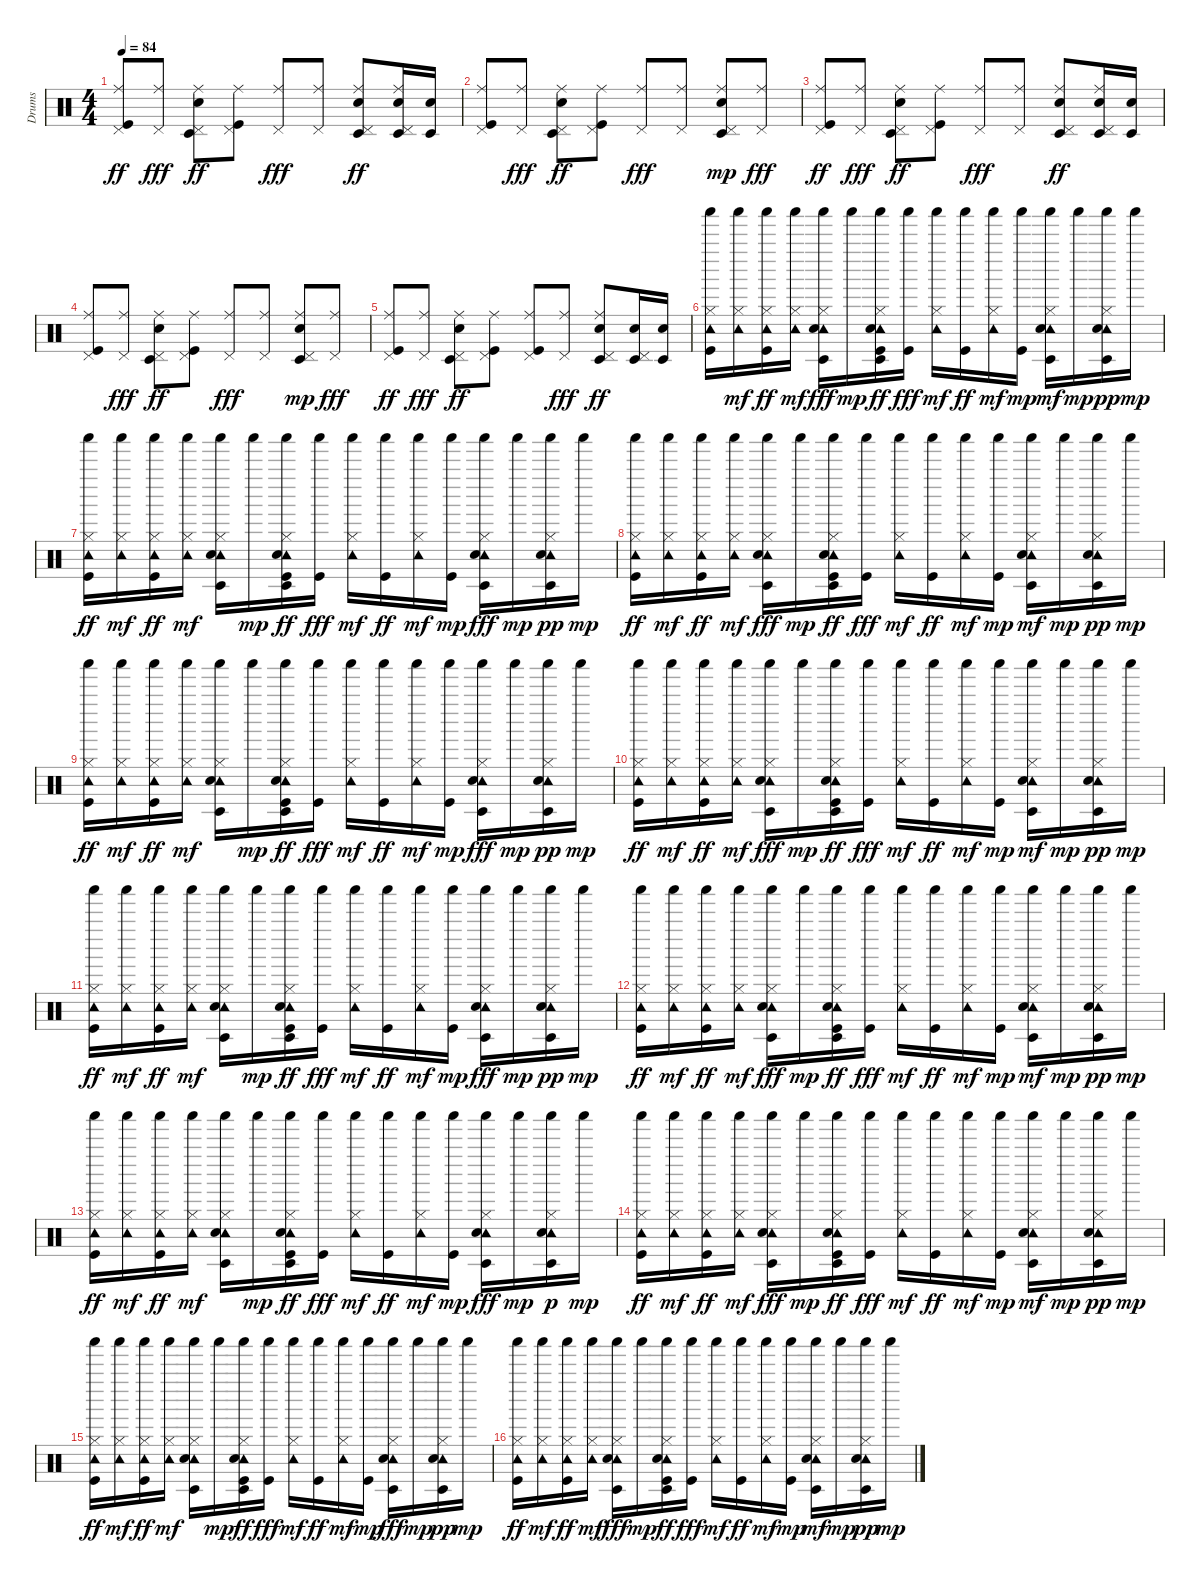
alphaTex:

\track ("Drums" "Drums") {instrument percussion}
\staff {score}
\articulation defaults
\ts (4 4)
\tempo 84
\clef neutral
\ks c
("Ride (middle)" "Pedal Hi-Hat (hit)" "Kick (hit)").8{dy ff} ("Ride (middle)" "Pedal Hi-Hat (hit)").8{dy fff} ("Ride (middle)" "Pedal Hi-Hat (hit)" "Timbale low (hit)" "Snare (hit) 2").8{dy ff} ("Ride (middle)" "Pedal Hi-Hat (hit)" "Kick (hit)").8 ("Ride (middle)" "Pedal Hi-Hat (hit)").8{dy fff} ("Ride (middle)" "Pedal Hi-Hat (hit)").8 ("Ride (middle)" "Pedal Hi-Hat (hit)" "Timbale low (hit)" "Snare (hit) 2").8{dy ff} ("Ride (middle)" "Pedal Hi-Hat (hit)" "Timbale low (hit)" "Snare (hit) 2").16 ("Timbale low (hit)" "Snare (hit) 2").16 |
("Ride (middle)" "Pedal Hi-Hat (hit)" "Kick (hit)").8 ("Ride (middle)" "Pedal Hi-Hat (hit)").8{dy fff} ("Ride (middle)" "Pedal Hi-Hat (hit)" "Timbale low (hit)" "Snare (hit) 2").8{dy ff} ("Ride (middle)" "Pedal Hi-Hat (hit)" "Kick (hit)").8 ("Ride (middle)" "Pedal Hi-Hat (hit)").8{dy fff} ("Ride (middle)" "Pedal Hi-Hat (hit)").8 ("Ride (middle)" "Pedal Hi-Hat (hit)" "Timbale low (hit)" "Snare (hit) 2").8{dy mp} ("Ride (middle)" "Pedal Hi-Hat (hit)").8{dy fff} |
("Ride (middle)" "Pedal Hi-Hat (hit)" "Kick (hit)").8{dy ff} ("Ride (middle)" "Pedal Hi-Hat (hit)").8{dy fff} ("Ride (middle)" "Pedal Hi-Hat (hit)" "Timbale low (hit)" "Snare (hit) 2").8{dy ff} ("Ride (middle)" "Pedal Hi-Hat (hit)" "Kick (hit)").8 ("Ride (middle)" "Pedal Hi-Hat (hit)").8{dy fff} ("Ride (middle)" "Pedal Hi-Hat (hit)").8 ("Ride (middle)" "Pedal Hi-Hat (hit)" "Timbale low (hit)" "Snare (hit) 2").8{dy ff} ("Ride (middle)" "Pedal Hi-Hat (hit)" "Timbale low (hit)" "Snare (hit) 2").16 ("Timbale low (hit)" "Snare (hit) 2").16 |
("Ride (middle)" "Pedal Hi-Hat (hit)" "Kick (hit)").8 ("Ride (middle)" "Pedal Hi-Hat (hit)").8{dy fff} ("Ride (middle)" "Pedal Hi-Hat (hit)" "Timbale low (hit)" "Snare (hit) 2").8{dy ff} ("Ride (middle)" "Pedal Hi-Hat (hit)" "Kick (hit)").8 ("Ride (middle)" "Pedal Hi-Hat (hit)").8{dy fff} ("Ride (middle)" "Pedal Hi-Hat (hit)").8 ("Ride (middle)" "Pedal Hi-Hat (hit)" "Timbale low (hit)" "Snare (hit) 2").8{dy mp} ("Ride (middle)" "Pedal Hi-Hat (hit)").8{dy fff} |
("Ride (middle)" "Pedal Hi-Hat (hit)" "Kick (hit)").8{dy ff} ("Ride (middle)" "Pedal Hi-Hat (hit)").8{dy fff} ("Ride (middle)" "Pedal Hi-Hat (hit)" "Timbale low (hit)" "Snare (hit) 2").8{dy ff} ("Ride (middle)" "Pedal Hi-Hat (hit)" "Kick (hit)").8 ("Ride (middle)" "Pedal Hi-Hat (hit)" "Kick (hit)").8 ("Ride (middle)" "Pedal Hi-Hat (hit)").8{dy fff} ("Ride (middle)" "Pedal Hi-Hat (hit)" "Timbale low (hit)" "Snare (hit) 2").8{dy ff} ("Pedal Hi-Hat (hit)" "Timbale low (hit)" "Snare (hit) 2").16 ("Timbale low (hit)" "Snare (hit) 2").16 |
("Shaker (hit)" "Tambourine (hit)" "Hi-Hat (closed)" "Kick (hit)").16 ("Shaker (hit)" "Tambourine (hit)" "Hi-Hat (closed)").16{dy mf} ("Shaker (hit)" "Tambourine (hit)" "Hi-Hat (closed)" "Kick (hit)").16{dy ff} ("Shaker (hit)" "Tambourine (hit)" "Hi-Hat (closed)").16{dy mf} ("Shaker (hit)" "Tambourine (hit)" "Hi-Hat (closed)" "Timbale low (hit)" "Snare (hit) 2").16{dy fff} "Shaker (hit)".16{dy mp} ("Shaker (hit)" "Tambourine (hit)" "Hi-Hat (closed)" "Timbale low (hit)" "Snare (hit) 2" "Kick (hit)").16{dy ff} ("Shaker (hit)" "Kick (hit)").16{dy fff} ("Shaker (hit)" "Tambourine (hit)" "Hi-Hat (closed)").16{dy mf} ("Shaker (hit)" "Kick (hit)").16{dy ff} ("Shaker (hit)" "Tambourine (hit)" "Hi-Hat (closed)").16{dy mf} ("Shaker (hit)" "Kick (hit)").16{dy mp} ("Shaker (hit)" "Tambourine (hit)" "Hi-Hat (closed)" "Timbale low (hit)" "Snare (hit) 2").16{dy mf} "Shaker (hit)".16{dy mp} ("Shaker (hit)" "Tambourine (hit)" "Hi-Hat (closed)" "Timbale low (hit)" "Snare (hit) 2").16{dy pp} "Shaker (hit)".16{dy mp} |
("Shaker (hit)" "Tambourine (hit)" "Hi-Hat (closed)" "Kick (hit)").16{dy ff} ("Shaker (hit)" "Tambourine (hit)" "Hi-Hat (closed)").16{dy mf} ("Shaker (hit)" "Tambourine (hit)" "Hi-Hat (closed)" "Kick (hit)").16{dy ff} ("Shaker (hit)" "Tambourine (hit)" "Hi-Hat (closed)").16{dy mf} ("Shaker (hit)" "Tambourine (hit)" "Hi-Hat (closed)" "Timbale low (hit)" "Snare (hit) 2").16 "Shaker (hit)".16{dy mp} ("Shaker (hit)" "Tambourine (hit)" "Hi-Hat (closed)" "Timbale low (hit)" "Snare (hit) 2" "Kick (hit)").16{dy ff} ("Shaker (hit)" "Kick (hit)").16{dy fff} ("Shaker (hit)" "Tambourine (hit)" "Hi-Hat (closed)").16{dy mf} ("Shaker (hit)" "Kick (hit)").16{dy ff} ("Shaker (hit)" "Tambourine (hit)" "Hi-Hat (closed)").16{dy mf} ("Shaker (hit)" "Kick (hit)").16{dy mp} ("Shaker (hit)" "Tambourine (hit)" "Hi-Hat (closed)" "Timbale low (hit)" "Snare (hit) 2").16{dy fff} "Shaker (hit)".16{dy mp} ("Shaker (hit)" "Tambourine (hit)" "Hi-Hat (closed)" "Timbale low (hit)" "Snare (hit) 2").16{dy pp} "Shaker (hit)".16{dy mp} |
("Shaker (hit)" "Tambourine (hit)" "Hi-Hat (closed)" "Kick (hit)").16{dy ff} ("Shaker (hit)" "Tambourine (hit)" "Hi-Hat (closed)").16{dy mf} ("Shaker (hit)" "Tambourine (hit)" "Hi-Hat (closed)" "Kick (hit)").16{dy ff} ("Shaker (hit)" "Tambourine (hit)" "Hi-Hat (closed)").16{dy mf} ("Shaker (hit)" "Tambourine (hit)" "Hi-Hat (closed)" "Timbale low (hit)" "Snare (hit) 2").16{dy fff} "Shaker (hit)".16{dy mp} ("Shaker (hit)" "Tambourine (hit)" "Hi-Hat (closed)" "Timbale low (hit)" "Snare (hit) 2" "Kick (hit)").16{dy ff} ("Shaker (hit)" "Kick (hit)").16{dy fff} ("Shaker (hit)" "Tambourine (hit)" "Hi-Hat (closed)").16{dy mf} ("Shaker (hit)" "Kick (hit)").16{dy ff} ("Shaker (hit)" "Tambourine (hit)" "Hi-Hat (closed)").16{dy mf} ("Shaker (hit)" "Kick (hit)").16{dy mp} ("Shaker (hit)" "Tambourine (hit)" "Hi-Hat (closed)" "Timbale low (hit)" "Snare (hit) 2").16{dy mf} "Shaker (hit)".16{dy mp} ("Shaker (hit)" "Tambourine (hit)" "Hi-Hat (closed)" "Timbale low (hit)" "Snare (hit) 2").16{dy pp} "Shaker (hit)".16{dy mp} |
("Shaker (hit)" "Tambourine (hit)" "Hi-Hat (closed)" "Kick (hit)").16{dy ff} ("Shaker (hit)" "Tambourine (hit)" "Hi-Hat (closed)").16{dy mf} ("Shaker (hit)" "Tambourine (hit)" "Hi-Hat (closed)" "Kick (hit)").16{dy ff} ("Shaker (hit)" "Tambourine (hit)" "Hi-Hat (closed)").16{dy mf} ("Shaker (hit)" "Tambourine (hit)" "Hi-Hat (closed)" "Timbale low (hit)" "Snare (hit) 2").16 "Shaker (hit)".16{dy mp} ("Shaker (hit)" "Tambourine (hit)" "Hi-Hat (closed)" "Timbale low (hit)" "Snare (hit) 2" "Kick (hit)").16{dy ff} ("Shaker (hit)" "Kick (hit)").16{dy fff} ("Shaker (hit)" "Tambourine (hit)" "Hi-Hat (closed)").16{dy mf} ("Shaker (hit)" "Kick (hit)").16{dy ff} ("Shaker (hit)" "Tambourine (hit)" "Hi-Hat (closed)").16{dy mf} ("Shaker (hit)" "Kick (hit)").16{dy mp} ("Shaker (hit)" "Tambourine (hit)" "Hi-Hat (closed)" "Timbale low (hit)" "Snare (hit) 2").16{dy fff} "Shaker (hit)".16{dy mp} ("Shaker (hit)" "Tambourine (hit)" "Hi-Hat (closed)" "Timbale low (hit)" "Snare (hit) 2").16{dy pp} "Shaker (hit)".16{dy mp} |
("Shaker (hit)" "Tambourine (hit)" "Hi-Hat (closed)" "Kick (hit)").16{dy ff} ("Shaker (hit)" "Tambourine (hit)" "Hi-Hat (closed)").16{dy mf} ("Shaker (hit)" "Tambourine (hit)" "Hi-Hat (closed)" "Kick (hit)").16{dy ff} ("Shaker (hit)" "Tambourine (hit)" "Hi-Hat (closed)").16{dy mf} ("Shaker (hit)" "Tambourine (hit)" "Hi-Hat (closed)" "Timbale low (hit)" "Snare (hit) 2").16{dy fff} "Shaker (hit)".16{dy mp} ("Shaker (hit)" "Tambourine (hit)" "Hi-Hat (closed)" "Timbale low (hit)" "Snare (hit) 2" "Kick (hit)").16{dy ff} ("Shaker (hit)" "Kick (hit)").16{dy fff} ("Shaker (hit)" "Tambourine (hit)" "Hi-Hat (closed)").16{dy mf} ("Shaker (hit)" "Kick (hit)").16{dy ff} ("Shaker (hit)" "Tambourine (hit)" "Hi-Hat (closed)").16{dy mf} ("Shaker (hit)" "Kick (hit)").16{dy mp} ("Shaker (hit)" "Tambourine (hit)" "Hi-Hat (closed)" "Timbale low (hit)" "Snare (hit) 2").16{dy mf} "Shaker (hit)".16{dy mp} ("Shaker (hit)" "Tambourine (hit)" "Hi-Hat (closed)" "Timbale low (hit)" "Snare (hit) 2").16{dy pp} "Shaker (hit)".16{dy mp} |
("Shaker (hit)" "Tambourine (hit)" "Hi-Hat (closed)" "Kick (hit)").16{dy ff} ("Shaker (hit)" "Tambourine (hit)" "Hi-Hat (closed)").16{dy mf} ("Shaker (hit)" "Tambourine (hit)" "Hi-Hat (closed)" "Kick (hit)").16{dy ff} ("Shaker (hit)" "Tambourine (hit)" "Hi-Hat (closed)").16{dy mf} ("Shaker (hit)" "Tambourine (hit)" "Hi-Hat (closed)" "Timbale low (hit)" "Snare (hit) 2").16 "Shaker (hit)".16{dy mp} ("Shaker (hit)" "Tambourine (hit)" "Hi-Hat (closed)" "Timbale low (hit)" "Snare (hit) 2" "Kick (hit)").16{dy ff} ("Shaker (hit)" "Kick (hit)").16{dy fff} ("Shaker (hit)" "Tambourine (hit)" "Hi-Hat (closed)").16{dy mf} ("Shaker (hit)" "Kick (hit)").16{dy ff} ("Shaker (hit)" "Tambourine (hit)" "Hi-Hat (closed)").16{dy mf} ("Shaker (hit)" "Kick (hit)").16{dy mp} ("Shaker (hit)" "Tambourine (hit)" "Hi-Hat (closed)" "Timbale low (hit)" "Snare (hit) 2").16{dy fff} "Shaker (hit)".16{dy mp} ("Shaker (hit)" "Tambourine (hit)" "Hi-Hat (closed)" "Timbale low (hit)" "Snare (hit) 2").16{dy pp} "Shaker (hit)".16{dy mp} |
("Shaker (hit)" "Tambourine (hit)" "Hi-Hat (closed)" "Kick (hit)").16{dy ff} ("Shaker (hit)" "Tambourine (hit)" "Hi-Hat (closed)").16{dy mf} ("Shaker (hit)" "Tambourine (hit)" "Hi-Hat (closed)" "Kick (hit)").16{dy ff} ("Shaker (hit)" "Tambourine (hit)" "Hi-Hat (closed)").16{dy mf} ("Shaker (hit)" "Tambourine (hit)" "Hi-Hat (closed)" "Timbale low (hit)" "Snare (hit) 2").16{dy fff} "Shaker (hit)".16{dy mp} ("Shaker (hit)" "Tambourine (hit)" "Hi-Hat (closed)" "Timbale low (hit)" "Snare (hit) 2" "Kick (hit)").16{dy ff} ("Shaker (hit)" "Kick (hit)").16{dy fff} ("Shaker (hit)" "Tambourine (hit)" "Hi-Hat (closed)").16{dy mf} ("Shaker (hit)" "Kick (hit)").16{dy ff} ("Shaker (hit)" "Tambourine (hit)" "Hi-Hat (closed)").16{dy mf} ("Shaker (hit)" "Kick (hit)").16{dy mp} ("Shaker (hit)" "Tambourine (hit)" "Hi-Hat (closed)" "Timbale low (hit)" "Snare (hit) 2").16{dy mf} "Shaker (hit)".16{dy mp} ("Shaker (hit)" "Tambourine (hit)" "Hi-Hat (closed)" "Timbale low (hit)" "Snare (hit) 2").16{dy pp} "Shaker (hit)".16{dy mp} |
("Shaker (hit)" "Tambourine (hit)" "Hi-Hat (closed)" "Kick (hit)").16{dy ff} ("Shaker (hit)" "Tambourine (hit)" "Hi-Hat (closed)").16{dy mf} ("Shaker (hit)" "Tambourine (hit)" "Hi-Hat (closed)" "Kick (hit)").16{dy ff} ("Shaker (hit)" "Tambourine (hit)" "Hi-Hat (closed)").16{dy mf} ("Shaker (hit)" "Tambourine (hit)" "Hi-Hat (closed)" "Timbale low (hit)" "Snare (hit) 2").16 "Shaker (hit)".16{dy mp} ("Shaker (hit)" "Tambourine (hit)" "Hi-Hat (closed)" "Timbale low (hit)" "Snare (hit) 2" "Kick (hit)").16{dy ff} ("Shaker (hit)" "Kick (hit)").16{dy fff} ("Shaker (hit)" "Tambourine (hit)" "Hi-Hat (closed)").16{dy mf} ("Shaker (hit)" "Kick (hit)").16{dy ff} ("Shaker (hit)" "Tambourine (hit)" "Hi-Hat (closed)").16{dy mf} ("Shaker (hit)" "Kick (hit)").16{dy mp} ("Shaker (hit)" "Tambourine (hit)" "Hi-Hat (closed)" "Timbale low (hit)" "Snare (hit) 2").16{dy fff} "Shaker (hit)".16{dy mp} ("Shaker (hit)" "Tambourine (hit)" "Hi-Hat (closed)" "Timbale low (hit)" "Snare (hit) 2").16{dy p} "Shaker (hit)".16{dy mp} |
("Shaker (hit)" "Tambourine (hit)" "Hi-Hat (closed)" "Kick (hit)").16{dy ff} ("Shaker (hit)" "Tambourine (hit)" "Hi-Hat (closed)").16{dy mf} ("Shaker (hit)" "Tambourine (hit)" "Hi-Hat (closed)" "Kick (hit)").16{dy ff} ("Shaker (hit)" "Tambourine (hit)" "Hi-Hat (closed)").16{dy mf} ("Shaker (hit)" "Tambourine (hit)" "Hi-Hat (closed)" "Timbale low (hit)" "Snare (hit) 2").16{dy fff} "Shaker (hit)".16{dy mp} ("Shaker (hit)" "Tambourine (hit)" "Hi-Hat (closed)" "Timbale low (hit)" "Snare (hit) 2" "Kick (hit)").16{dy ff} ("Shaker (hit)" "Kick (hit)").16{dy fff} ("Shaker (hit)" "Tambourine (hit)" "Hi-Hat (closed)").16{dy mf} ("Shaker (hit)" "Kick (hit)").16{dy ff} ("Shaker (hit)" "Tambourine (hit)" "Hi-Hat (closed)").16{dy mf} ("Shaker (hit)" "Kick (hit)").16{dy mp} ("Shaker (hit)" "Tambourine (hit)" "Hi-Hat (closed)" "Timbale low (hit)" "Snare (hit) 2").16{dy mf} "Shaker (hit)".16{dy mp} ("Shaker (hit)" "Tambourine (hit)" "Hi-Hat (closed)" "Timbale low (hit)" "Snare (hit) 2").16{dy pp} "Shaker (hit)".16{dy mp} |
("Shaker (hit)" "Tambourine (hit)" "Hi-Hat (closed)" "Kick (hit)").16{dy ff} ("Shaker (hit)" "Tambourine (hit)" "Hi-Hat (closed)").16{dy mf} ("Shaker (hit)" "Tambourine (hit)" "Hi-Hat (closed)" "Kick (hit)").16{dy ff} ("Shaker (hit)" "Tambourine (hit)" "Hi-Hat (closed)").16{dy mf} ("Shaker (hit)" "Tambourine (hit)" "Hi-Hat (closed)" "Timbale low (hit)" "Snare (hit) 2").16 "Shaker (hit)".16{dy mp} ("Shaker (hit)" "Tambourine (hit)" "Hi-Hat (closed)" "Timbale low (hit)" "Snare (hit) 2" "Kick (hit)").16{dy ff} ("Shaker (hit)" "Kick (hit)").16{dy fff} ("Shaker (hit)" "Tambourine (hit)" "Hi-Hat (closed)").16{dy mf} ("Shaker (hit)" "Kick (hit)").16{dy ff} ("Shaker (hit)" "Tambourine (hit)" "Hi-Hat (closed)").16{dy mf} ("Shaker (hit)" "Kick (hit)").16{dy mp} ("Shaker (hit)" "Tambourine (hit)" "Hi-Hat (closed)" "Timbale low (hit)" "Snare (hit) 2").16{dy fff} "Shaker (hit)".16{dy mp} ("Shaker (hit)" "Tambourine (hit)" "Hi-Hat (closed)" "Timbale low (hit)" "Snare (hit) 2").16{dy pp} "Shaker (hit)".16{dy mp} |
("Shaker (hit)" "Tambourine (hit)" "Hi-Hat (closed)" "Kick (hit)").16{dy ff} ("Shaker (hit)" "Tambourine (hit)" "Hi-Hat (closed)").16{dy mf} ("Shaker (hit)" "Tambourine (hit)" "Hi-Hat (closed)" "Kick (hit)").16{dy ff} ("Shaker (hit)" "Tambourine (hit)" "Hi-Hat (closed)").16{dy mf} ("Shaker (hit)" "Tambourine (hit)" "Hi-Hat (closed)" "Timbale low (hit)" "Snare (hit) 2").16{dy fff} "Shaker (hit)".16{dy mp} ("Shaker (hit)" "Tambourine (hit)" "Hi-Hat (closed)" "Timbale low (hit)" "Snare (hit) 2" "Kick (hit)").16{dy ff} ("Shaker (hit)" "Kick (hit)").16{dy fff} ("Shaker (hit)" "Tambourine (hit)" "Hi-Hat (closed)").16{dy mf} ("Shaker (hit)" "Kick (hit)").16{dy ff} ("Shaker (hit)" "Tambourine (hit)" "Hi-Hat (closed)").16{dy mf} ("Shaker (hit)" "Kick (hit)").16{dy mp} ("Shaker (hit)" "Tambourine (hit)" "Hi-Hat (closed)" "Timbale low (hit)" "Snare (hit) 2").16{dy mf} "Shaker (hit)".16{dy mp} ("Shaker (hit)" "Tambourine (hit)" "Hi-Hat (closed)" "Timbale low (hit)" "Snare (hit) 2").16{dy pp} "Shaker (hit)".16{dy mp}
